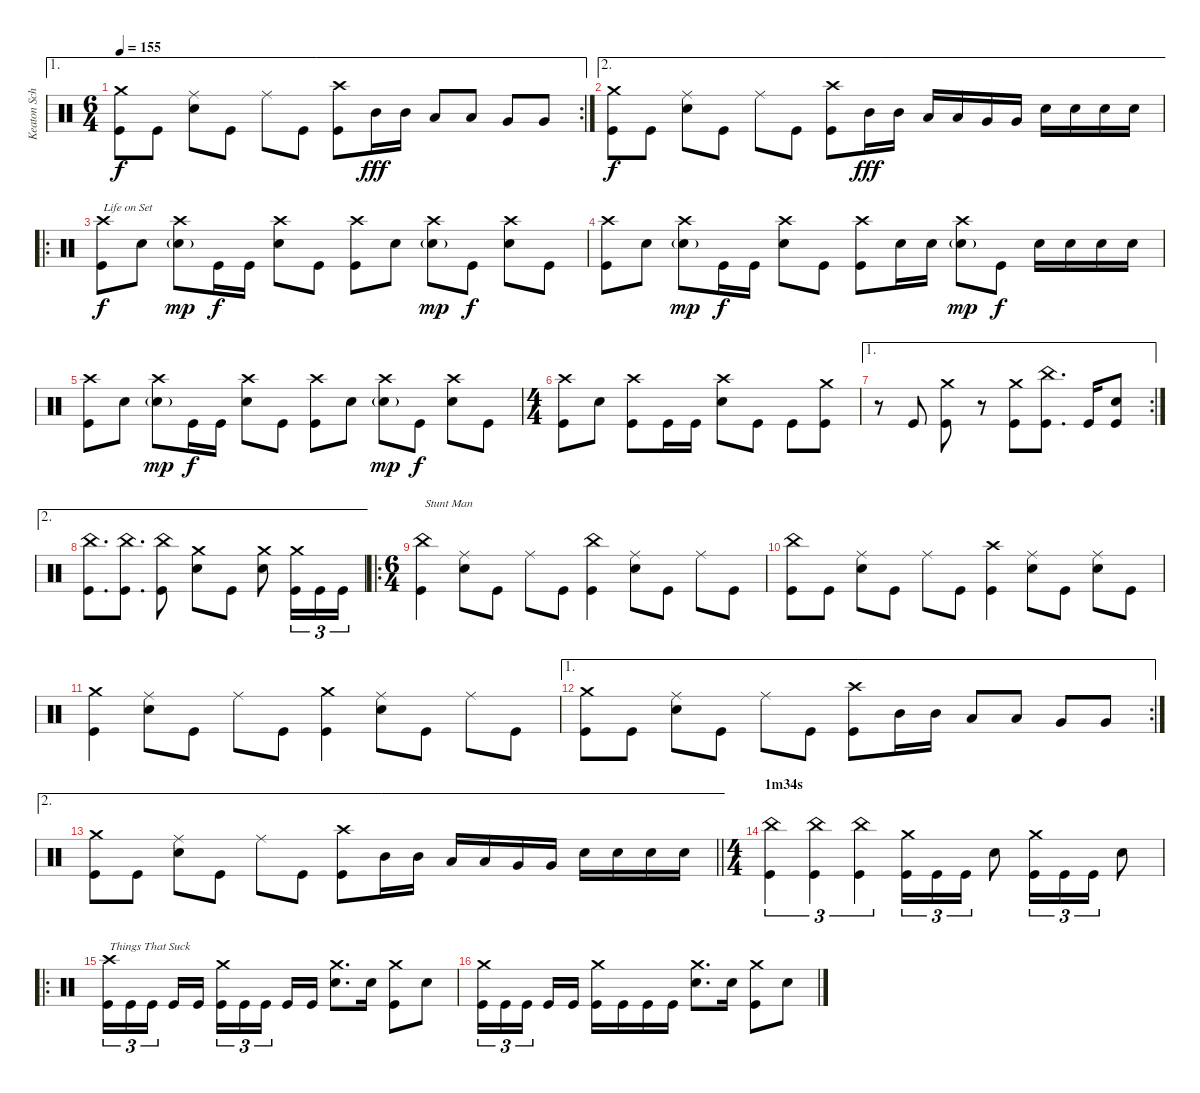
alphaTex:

\track ("Keaton Schluchter Drums" "Keaton Sch") {instrument percussion bank 20}
\staff {score}
\articulation defaults
\ae 1
\rc 2
\ts (6 4)
\tempo 155
\clef neutral
\ks c
("Crash medium (hit)" "Kick (hit)").8{dy f} "Kick (hit)".8 ("Ride (middle)" "Electric Snare (hit)").8 "Kick (hit)".8 "Ride (middle)".8 "Kick (hit)".8 ("Crash high (hit)" "Kick (hit)").8 "Mid Tom (hit)".16{dy fff} "Mid Tom (hit)".16 "Low Tom (hit)".8 "Low Tom (hit)".8 "Very Low Tom (hit)".8 "Very Low Tom (hit)".8 |
\ae 2
("Crash medium (hit)" "Kick (hit)").8{dy f} "Kick (hit)".8 ("Ride (middle)" "Electric Snare (hit)").8 "Kick (hit)".8 "Ride (middle)".8 "Kick (hit)".8 ("Crash high (hit)" "Kick (hit)").8 "Mid Tom (hit)".16{dy fff} "Mid Tom (hit)".16 "Low Tom (hit)".16 "Low Tom (hit)".16 "Very Low Tom (hit)".16 "Very Low Tom (hit)".16 "Electric Snare (hit)".16 "Electric Snare (hit)".16 "Electric Snare (hit)".16 "Electric Snare (hit)".16 |
\ro
("Crash high (hit)" "Kick (hit)").8{txt "Life on Set" dy f} "Electric Snare (hit)".8 ("Crash high (hit)" "Electric Snare (hit)"{g}).8{dy mp} "Kick (hit)".16{dy f} "Kick (hit)".16 ("Crash high (hit)" "Electric Snare (hit)").8 "Kick (hit)".8 ("Crash high (hit)" "Kick (hit)").8 "Electric Snare (hit)".8 ("Crash high (hit)" "Electric Snare (hit)"{g}).8{dy mp} "Kick (hit)".8{dy f} ("Crash high (hit)" "Electric Snare (hit)").8 "Kick (hit)".8 |
("Crash high (hit)" "Kick (hit)").8 "Electric Snare (hit)".8 ("Crash high (hit)" "Electric Snare (hit)"{g}).8{dy mp} "Kick (hit)".16{dy f} "Kick (hit)".16 ("Crash high (hit)" "Electric Snare (hit)").8 "Kick (hit)".8 ("Crash high (hit)" "Kick (hit)").8 "Electric Snare (hit)".16 "Electric Snare (hit)".16 ("Crash high (hit)" "Electric Snare (hit)"{g}).8{dy mp} "Kick (hit)".8{dy f} "Electric Snare (hit)".16 "Electric Snare (hit)".16 "Electric Snare (hit)".16 "Electric Snare (hit)".16 |
("Crash high (hit)" "Kick (hit)").8 "Electric Snare (hit)".8 ("Crash high (hit)" "Electric Snare (hit)"{g}).8{dy mp} "Kick (hit)".16{dy f} "Kick (hit)".16 ("Crash high (hit)" "Electric Snare (hit)").8 "Kick (hit)".8 ("Crash high (hit)" "Kick (hit)").8 "Electric Snare (hit)".8 ("Crash high (hit)" "Electric Snare (hit)"{g}).8{dy mp} "Kick (hit)".8{dy f} ("Crash high (hit)" "Electric Snare (hit)").8 "Kick (hit)".8 |
\ts (4 4)
("Crash high (hit)" "Kick (hit)").8 "Electric Snare (hit)".8 ("Crash high (hit)" "Kick (hit)").8 "Kick (hit)".16 "Kick (hit)".16 ("Crash high (hit)" "Electric Snare (hit)").8 "Kick (hit)".8 "Kick (hit)".8 ("Crash medium (hit)" "Kick (hit)").8 |
\ae 1
\rc 2
r.8 "Kick (hit)".8 ("Crash medium (hit)" "Kick (hit)").8 r.8 ("Crash medium (hit)" "Kick (hit)").8 ("China (hit)" "Kick (hit)").8{d} "Kick (hit)".16 ("Electric Snare (hit)" "Kick (hit)").8 |
\ae 2
("China (hit)" "Kick (hit)").8{d} ("China (hit)" "Kick (hit)").8{d} ("China (hit)" "Kick (hit)").8 ("Crash medium (hit)" "Electric Snare (hit)").8 "Kick (hit)".8 ("Crash medium (hit)" "Electric Snare (hit)").8 ("Crash medium (hit)" "Kick (hit)").16{tu (3 2)} "Kick (hit)".16{tu (3 2)} "Kick (hit)".16{tu (3 2)} |
\ro
\ts (6 4)
("China (hit)" "Kick (hit)").4{txt "Stunt Man"} ("Ride (middle)" "Electric Snare (hit)").8 "Kick (hit)".8 "Ride (middle)".8 "Kick (hit)".8 ("China (hit)" "Kick (hit)").4 ("Ride (middle)" "Electric Snare (hit)").8 "Kick (hit)".8 "Ride (middle)".8 "Kick (hit)".8 |
("China (hit)" "Kick (hit)").8 "Kick (hit)".8 ("Ride (middle)" "Electric Snare (hit)").8 "Kick (hit)".8 "Ride (middle)".8 "Kick (hit)".8 ("Crash high (hit)" "Kick (hit)").4 ("Ride (middle)" "Electric Snare (hit)").8 "Kick (hit)".8 ("Ride (middle)" "Electric Snare (hit)").8 "Kick (hit)".8 |
("Crash medium (hit)" "Kick (hit)").4 ("Ride (middle)" "Electric Snare (hit)").8 "Kick (hit)".8 "Ride (middle)".8 "Kick (hit)".8 ("Crash medium (hit)" "Kick (hit)").4 ("Ride (middle)" "Electric Snare (hit)").8 "Kick (hit)".8 "Ride (middle)".8 "Kick (hit)".8 |
\ae 1
\rc 2
("Crash medium (hit)" "Kick (hit)").8 "Kick (hit)".8 ("Ride (middle)" "Electric Snare (hit)").8 "Kick (hit)".8 "Ride (middle)".8 "Kick (hit)".8 ("Crash high (hit)" "Kick (hit)").8 "Mid Tom (hit)".16 "Mid Tom (hit)".16 "Low Tom (hit)".8 "Low Tom (hit)".8 "Very Low Tom (hit)".8 "Very Low Tom (hit)".8 |
\ae 2
\barLineRight lightlight
("Crash medium (hit)" "Kick (hit)").8 "Kick (hit)".8 ("Ride (middle)" "Electric Snare (hit)").8 "Kick (hit)".8 "Ride (middle)".8 "Kick (hit)".8 ("Crash high (hit)" "Kick (hit)").8 "Mid Tom (hit)".16 "Mid Tom (hit)".16 "Low Tom (hit)".16 "Low Tom (hit)".16 "Very Low Tom (hit)".16 "Very Low Tom (hit)".16 "Electric Snare (hit)".16 "Electric Snare (hit)".16 "Electric Snare (hit)".16 "Electric Snare (hit)".16 |
\ts (4 4)
\section ("" "1m34s")
("China (hit)" "Kick (hit)").4{tu (3 2)} ("China (hit)" "Kick (hit)").4{tu (3 2)} ("China (hit)" "Kick (hit)").4{tu (3 2)} ("Crash medium (hit)" "Kick (hit)").16{tu (3 2)} "Kick (hit)".16{tu (3 2)} "Kick (hit)".16{tu (3 2)} "Electric Snare (hit)".8 ("Crash medium (hit)" "Kick (hit)").16{tu (3 2)} "Kick (hit)".16{tu (3 2)} "Kick (hit)".16{tu (3 2)} "Electric Snare (hit)".8 |
\ro
("Crash high (hit)" "Kick (hit)").16{tu (3 2) txt "Things That Suck"} "Kick (hit)".16{tu (3 2)} "Kick (hit)".16{tu (3 2) beam splitsecondary} "Kick (hit)".16 "Kick (hit)".16 ("Crash medium (hit)" "Kick (hit)").16{tu (3 2)} "Kick (hit)".16{tu (3 2)} "Kick (hit)".16{tu (3 2) beam splitsecondary} "Kick (hit)".16 "Kick (hit)".16 ("Crash medium (hit)" "Electric Snare (hit)").8{d} "Electric Snare (hit)".16 ("Crash medium (hit)" "Kick (hit)").8 "Electric Snare (hit)".8 |
("Crash medium (hit)" "Kick (hit)").16{tu (3 2)} "Kick (hit)".16{tu (3 2)} "Kick (hit)".16{tu (3 2) beam splitsecondary} "Kick (hit)".16 "Kick (hit)".16 ("Crash medium (hit)" "Kick (hit)").16 "Kick (hit)".16 "Kick (hit)".16 "Kick (hit)".16 ("Crash medium (hit)" "Electric Snare (hit)").8{d} "Electric Snare (hit)".16 ("Crash medium (hit)" "Kick (hit)").8 "Electric Snare (hit)".8
